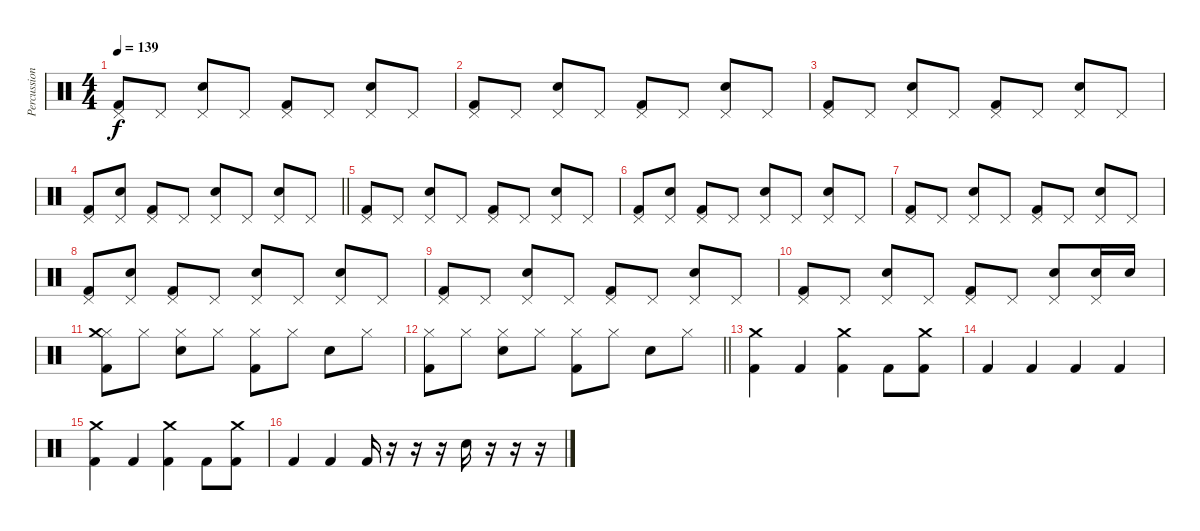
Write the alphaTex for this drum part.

\track ("Percussion" "Percussion") {instrument percussion}
\staff {score}
\articulation defaults
\ts (4 4)
\tempo 139
\clef neutral
\ks c
("Kick (hit) 2" "Pedal Hi-Hat (hit)").8{dy f} "Pedal Hi-Hat (hit)".8 ("Snare (hit) 2" "Pedal Hi-Hat (hit)").8 "Pedal Hi-Hat (hit)".8 ("Kick (hit) 2" "Pedal Hi-Hat (hit)").8 "Pedal Hi-Hat (hit)".8 ("Snare (hit) 2" "Pedal Hi-Hat (hit)").8 "Pedal Hi-Hat (hit)".8 |
("Kick (hit) 2" "Pedal Hi-Hat (hit)").8 "Pedal Hi-Hat (hit)".8 ("Snare (hit) 2" "Pedal Hi-Hat (hit)").8 "Pedal Hi-Hat (hit)".8 ("Kick (hit) 2" "Pedal Hi-Hat (hit)").8 "Pedal Hi-Hat (hit)".8 ("Snare (hit) 2" "Pedal Hi-Hat (hit)").8 "Pedal Hi-Hat (hit)".8 |
("Kick (hit) 2" "Pedal Hi-Hat (hit)").8 "Pedal Hi-Hat (hit)".8 ("Snare (hit) 2" "Pedal Hi-Hat (hit)").8 "Pedal Hi-Hat (hit)".8 ("Kick (hit) 2" "Pedal Hi-Hat (hit)").8 "Pedal Hi-Hat (hit)".8 ("Snare (hit) 2" "Pedal Hi-Hat (hit)").8 "Pedal Hi-Hat (hit)".8 |
\barLineRight lightlight
("Kick (hit) 2" "Pedal Hi-Hat (hit)").8 ("Snare (hit) 2" "Pedal Hi-Hat (hit)").8 ("Kick (hit) 2" "Pedal Hi-Hat (hit)").8 "Pedal Hi-Hat (hit)".8 ("Snare (hit) 2" "Pedal Hi-Hat (hit)").8 "Pedal Hi-Hat (hit)".8 ("Snare (hit) 2" "Pedal Hi-Hat (hit)").8 "Pedal Hi-Hat (hit)".8 |
("Kick (hit) 2" "Pedal Hi-Hat (hit)").8 "Pedal Hi-Hat (hit)".8 ("Snare (hit) 2" "Pedal Hi-Hat (hit)").8 "Pedal Hi-Hat (hit)".8 ("Kick (hit) 2" "Pedal Hi-Hat (hit)").8 "Pedal Hi-Hat (hit)".8 ("Snare (hit) 2" "Pedal Hi-Hat (hit)").8 "Pedal Hi-Hat (hit)".8 |
("Kick (hit) 2" "Pedal Hi-Hat (hit)").8 ("Snare (hit) 2" "Pedal Hi-Hat (hit)").8 ("Kick (hit) 2" "Pedal Hi-Hat (hit)").8 "Pedal Hi-Hat (hit)".8 ("Snare (hit) 2" "Pedal Hi-Hat (hit)").8 "Pedal Hi-Hat (hit)".8 ("Snare (hit) 2" "Pedal Hi-Hat (hit)").8 "Pedal Hi-Hat (hit)".8 |
("Kick (hit) 2" "Pedal Hi-Hat (hit)").8 "Pedal Hi-Hat (hit)".8 ("Snare (hit) 2" "Pedal Hi-Hat (hit)").8 "Pedal Hi-Hat (hit)".8 ("Kick (hit) 2" "Pedal Hi-Hat (hit)").8 "Pedal Hi-Hat (hit)".8 ("Snare (hit) 2" "Pedal Hi-Hat (hit)").8 "Pedal Hi-Hat (hit)".8 |
("Kick (hit) 2" "Pedal Hi-Hat (hit)").8 ("Snare (hit) 2" "Pedal Hi-Hat (hit)").8 ("Kick (hit) 2" "Pedal Hi-Hat (hit)").8 "Pedal Hi-Hat (hit)".8 ("Snare (hit) 2" "Pedal Hi-Hat (hit)").8 "Pedal Hi-Hat (hit)".8 ("Snare (hit) 2" "Pedal Hi-Hat (hit)").8 "Pedal Hi-Hat (hit)".8 |
("Kick (hit) 2" "Pedal Hi-Hat (hit)").8 "Pedal Hi-Hat (hit)".8 ("Snare (hit) 2" "Pedal Hi-Hat (hit)").8 "Pedal Hi-Hat (hit)".8 ("Kick (hit) 2" "Pedal Hi-Hat (hit)").8 "Pedal Hi-Hat (hit)".8 ("Snare (hit) 2" "Pedal Hi-Hat (hit)").8 "Pedal Hi-Hat (hit)".8 |
("Kick (hit) 2" "Pedal Hi-Hat (hit)").8 "Pedal Hi-Hat (hit)".8 ("Snare (hit) 2" "Pedal Hi-Hat (hit)").8 "Pedal Hi-Hat (hit)".8 ("Kick (hit) 2" "Pedal Hi-Hat (hit)").8 "Pedal Hi-Hat (hit)".8 ("Snare (hit) 2" "Pedal Hi-Hat (hit)").8 ("Snare (hit) 2" "Pedal Hi-Hat (hit)").16 "Snare (hit) 2".16 |
("Kick (hit) 2" "Hi-Hat (closed)" "Crash medium (hit)").8 "Hi-Hat (closed)".8 ("Snare (hit) 2" "Hi-Hat (closed)").8 "Hi-Hat (closed)".8 ("Kick (hit) 2" "Hi-Hat (closed)").8 "Hi-Hat (closed)".8 "Snare (hit) 2".8 "Hi-Hat (closed)".8 |
\barLineRight lightlight
("Kick (hit) 2" "Hi-Hat (closed)").8 "Hi-Hat (closed)".8 ("Snare (hit) 2" "Hi-Hat (closed)").8 "Hi-Hat (closed)".8 ("Kick (hit) 2" "Hi-Hat (closed)").8 "Hi-Hat (closed)".8 "Snare (hit) 2".8 "Hi-Hat (closed)".8 |
("Kick (hit) 2" "Crash medium (hit)").4 "Kick (hit) 2".4 ("Kick (hit) 2" "Crash medium (hit)").4 "Kick (hit) 2".8 ("Kick (hit) 2" "Crash medium (hit)").8 |
"Kick (hit) 2".4 "Kick (hit) 2".4 "Kick (hit) 2".4 "Kick (hit) 2".4 |
("Kick (hit) 2" "Crash medium (hit)").4 "Kick (hit) 2".4 ("Kick (hit) 2" "Crash medium (hit)").4 "Kick (hit) 2".8 ("Kick (hit) 2" "Crash medium (hit)").8 |
"Kick (hit) 2".4 "Kick (hit) 2".4 "Kick (hit) 2".16 r.16 r.16 r.16 "Snare (hit) 2".16 r.16 r.16 r.16
